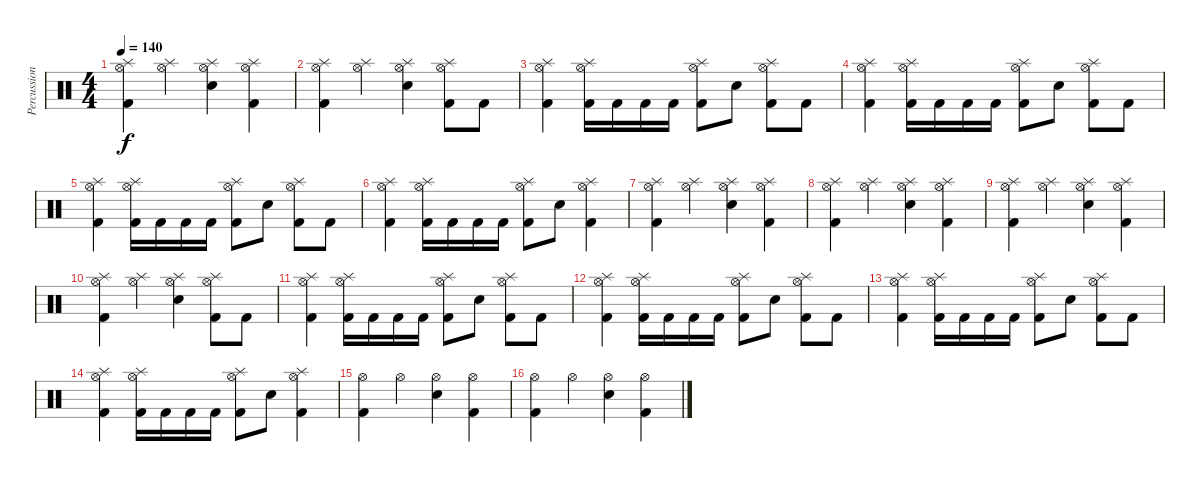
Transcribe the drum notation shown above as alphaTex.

\track ("Percussion" "Percussion") {instrument percussion}
\staff {score}
\articulation defaults
\ts (4 4)
\tempo 140
\clef neutral
\ks c
("Splash (hit)" "Hi-Hat (open)" "Kick (hit) 2").4{dy f} ("Splash (hit)" "Hi-Hat (open)").4 ("Splash (hit)" "Hi-Hat (open)" "Snare (hit) 2").4 ("Splash (hit)" "Hi-Hat (open)" "Kick (hit) 2").4 |
("Splash (hit)" "Hi-Hat (open)" "Kick (hit) 2").4 ("Splash (hit)" "Hi-Hat (open)").4 ("Splash (hit)" "Hi-Hat (open)" "Snare (hit) 2").4 ("Splash (hit)" "Hi-Hat (open)" "Kick (hit) 2").8 "Kick (hit) 2".8 |
("Splash (hit)" "Hi-Hat (open)" "Kick (hit) 2").4 ("Splash (hit)" "Hi-Hat (open)" "Kick (hit) 2").16 "Kick (hit) 2".16 "Kick (hit) 2".16 "Kick (hit) 2".16 ("Splash (hit)" "Hi-Hat (open)" "Kick (hit) 2").8 "Snare (hit) 2".8 ("Splash (hit)" "Hi-Hat (open)" "Kick (hit) 2").8 "Kick (hit) 2".8 |
("Splash (hit)" "Hi-Hat (open)" "Kick (hit) 2").4 ("Splash (hit)" "Hi-Hat (open)" "Kick (hit) 2").16 "Kick (hit) 2".16 "Kick (hit) 2".16 "Kick (hit) 2".16 ("Splash (hit)" "Hi-Hat (open)" "Kick (hit) 2").8 "Snare (hit) 2".8 ("Splash (hit)" "Hi-Hat (open)" "Kick (hit) 2").8 "Kick (hit) 2".8 |
("Splash (hit)" "Hi-Hat (open)" "Kick (hit) 2").4 ("Splash (hit)" "Hi-Hat (open)" "Kick (hit) 2").16 "Kick (hit) 2".16 "Kick (hit) 2".16 "Kick (hit) 2".16 ("Splash (hit)" "Hi-Hat (open)" "Kick (hit) 2").8 "Snare (hit) 2".8 ("Splash (hit)" "Hi-Hat (open)" "Kick (hit) 2").8 "Kick (hit) 2".8 |
("Splash (hit)" "Hi-Hat (open)" "Kick (hit) 2").4 ("Splash (hit)" "Hi-Hat (open)" "Kick (hit) 2").16 "Kick (hit) 2".16 "Kick (hit) 2".16 "Kick (hit) 2".16 ("Splash (hit)" "Hi-Hat (open)" "Kick (hit) 2").8 "Snare (hit) 2".8 ("Splash (hit)" "Hi-Hat (open)" "Kick (hit) 2").4 |
("Splash (hit)" "Hi-Hat (open)" "Kick (hit) 2").4 ("Splash (hit)" "Hi-Hat (open)").4 ("Splash (hit)" "Hi-Hat (open)" "Snare (hit) 2").4 ("Splash (hit)" "Hi-Hat (open)" "Kick (hit) 2").4 |
("Splash (hit)" "Hi-Hat (open)" "Kick (hit) 2").4 ("Splash (hit)" "Hi-Hat (open)").4 ("Splash (hit)" "Hi-Hat (open)" "Snare (hit) 2").4 ("Splash (hit)" "Hi-Hat (open)" "Kick (hit) 2").4 |
("Splash (hit)" "Hi-Hat (open)" "Kick (hit) 2").4 ("Splash (hit)" "Hi-Hat (open)").4 ("Splash (hit)" "Hi-Hat (open)" "Snare (hit) 2").4 ("Splash (hit)" "Hi-Hat (open)" "Kick (hit) 2").4 |
("Splash (hit)" "Hi-Hat (open)" "Kick (hit) 2").4 ("Splash (hit)" "Hi-Hat (open)").4 ("Splash (hit)" "Hi-Hat (open)" "Snare (hit) 2").4 ("Splash (hit)" "Hi-Hat (open)" "Kick (hit) 2").8 "Kick (hit) 2".8 |
("Splash (hit)" "Hi-Hat (open)" "Kick (hit) 2").4 ("Splash (hit)" "Hi-Hat (open)" "Kick (hit) 2").16 "Kick (hit) 2".16 "Kick (hit) 2".16 "Kick (hit) 2".16 ("Splash (hit)" "Hi-Hat (open)" "Kick (hit) 2").8 "Snare (hit) 2".8 ("Splash (hit)" "Hi-Hat (open)" "Kick (hit) 2").8 "Kick (hit) 2".8 |
("Splash (hit)" "Hi-Hat (open)" "Kick (hit) 2").4 ("Splash (hit)" "Hi-Hat (open)" "Kick (hit) 2").16 "Kick (hit) 2".16 "Kick (hit) 2".16 "Kick (hit) 2".16 ("Splash (hit)" "Hi-Hat (open)" "Kick (hit) 2").8 "Snare (hit) 2".8 ("Splash (hit)" "Hi-Hat (open)" "Kick (hit) 2").8 "Kick (hit) 2".8 |
("Splash (hit)" "Hi-Hat (open)" "Kick (hit) 2").4 ("Splash (hit)" "Hi-Hat (open)" "Kick (hit) 2").16 "Kick (hit) 2".16 "Kick (hit) 2".16 "Kick (hit) 2".16 ("Splash (hit)" "Hi-Hat (open)" "Kick (hit) 2").8 "Snare (hit) 2".8 ("Splash (hit)" "Hi-Hat (open)" "Kick (hit) 2").8 "Kick (hit) 2".8 |
("Splash (hit)" "Hi-Hat (open)" "Kick (hit) 2").4 ("Splash (hit)" "Hi-Hat (open)" "Kick (hit) 2").16 "Kick (hit) 2".16 "Kick (hit) 2".16 "Kick (hit) 2".16 ("Splash (hit)" "Hi-Hat (open)" "Kick (hit) 2").8 "Snare (hit) 2".8 ("Splash (hit)" "Hi-Hat (open)" "Kick (hit) 2").4 |
("Hi-Hat (open)" "Kick (hit) 2").4 "Hi-Hat (open)".4 ("Hi-Hat (open)" "Snare (hit) 2").4 ("Hi-Hat (open)" "Kick (hit) 2").4 |
("Hi-Hat (open)" "Kick (hit) 2").4 "Hi-Hat (open)".4 ("Hi-Hat (open)" "Snare (hit) 2").4 ("Hi-Hat (open)" "Kick (hit) 2").4
